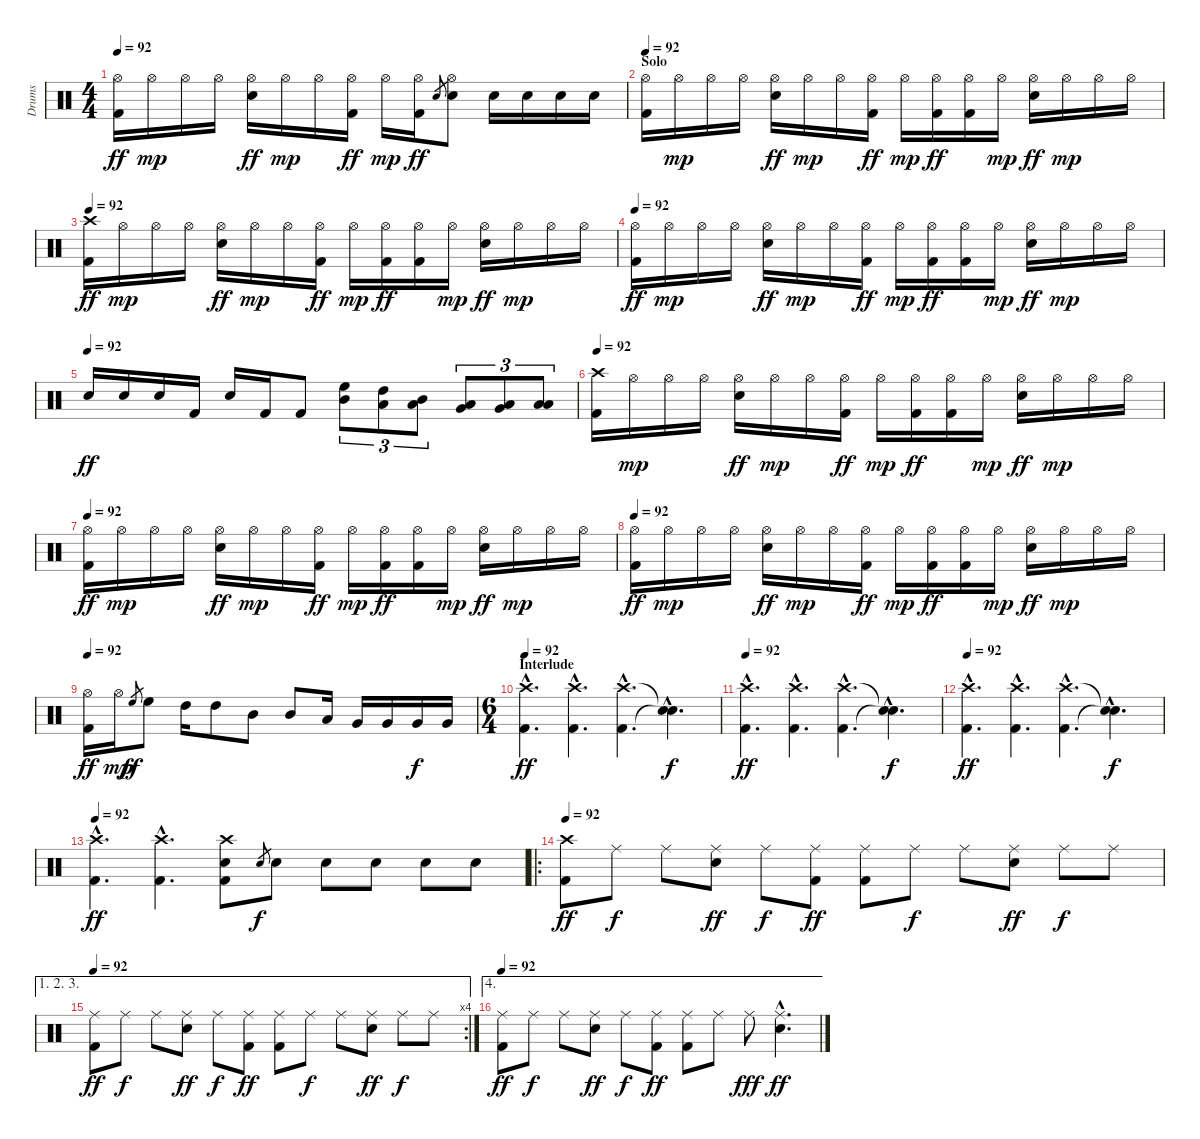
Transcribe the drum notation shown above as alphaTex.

\track ("Drums" "Drums") {instrument percussion}
\staff {score}
\articulation defaults
\ts (4 4)
\tempo 92
\clef neutral
\ks c
("Hi-Hat (open)" "Kick (hit) 2").16{dy ff} "Hi-Hat (open)".16{dy mp} "Hi-Hat (open)".16 "Hi-Hat (open)".16 ("Hi-Hat (open)" "Electric Snare (hit)").16{dy ff} "Hi-Hat (open)".16{dy mp} "Hi-Hat (open)".16 ("Hi-Hat (open)" "Kick (hit) 2").16{dy ff} "Hi-Hat (open)".16{dy mp} ("Hi-Hat (open)" "Kick (hit) 2").16{dy ff} "Electric Snare (hit)".8{gr} ("Hi-Hat (open)" "Electric Snare (hit)").8 "Electric Snare (hit)".16 "Electric Snare (hit)".16 "Electric Snare (hit)".16 "Electric Snare (hit)".16 |
\section ("" "Solo")
\tempo 92
("Hi-Hat (open)" "Kick (hit) 2").16 "Hi-Hat (open)".16{dy mp} "Hi-Hat (open)".16 "Hi-Hat (open)".16 ("Hi-Hat (open)" "Electric Snare (hit)").16{dy ff} "Hi-Hat (open)".16{dy mp} "Hi-Hat (open)".16 ("Hi-Hat (open)" "Kick (hit) 2").16{dy ff} "Hi-Hat (open)".16{dy mp} ("Hi-Hat (open)" "Kick (hit) 2").16{dy ff} ("Hi-Hat (open)" "Kick (hit) 2").16 "Hi-Hat (open)".16{dy mp} ("Hi-Hat (open)" "Electric Snare (hit)").16{dy ff} "Hi-Hat (open)".16{dy mp} "Hi-Hat (open)".16 "Hi-Hat (open)".16 |
\tempo 92
("Crash high (hit)" "Kick (hit) 2").16{dy ff} "Hi-Hat (open)".16{dy mp} "Hi-Hat (open)".16 "Hi-Hat (open)".16 ("Hi-Hat (open)" "Electric Snare (hit)").16{dy ff} "Hi-Hat (open)".16{dy mp} "Hi-Hat (open)".16 ("Hi-Hat (open)" "Kick (hit) 2").16{dy ff} "Hi-Hat (open)".16{dy mp} ("Hi-Hat (open)" "Kick (hit) 2").16{dy ff} ("Hi-Hat (open)" "Kick (hit) 2").16 "Hi-Hat (open)".16{dy mp} ("Hi-Hat (open)" "Electric Snare (hit)").16{dy ff} "Hi-Hat (open)".16{dy mp} "Hi-Hat (open)".16 "Hi-Hat (open)".16 |
\tempo 92
("Hi-Hat (open)" "Kick (hit) 2").16{dy ff} "Hi-Hat (open)".16{dy mp} "Hi-Hat (open)".16 "Hi-Hat (open)".16 ("Hi-Hat (open)" "Electric Snare (hit)").16{dy ff} "Hi-Hat (open)".16{dy mp} "Hi-Hat (open)".16 ("Hi-Hat (open)" "Kick (hit) 2").16{dy ff} "Hi-Hat (open)".16{dy mp} ("Hi-Hat (open)" "Kick (hit) 2").16{dy ff} ("Hi-Hat (open)" "Kick (hit) 2").16 "Hi-Hat (open)".16{dy mp} ("Hi-Hat (open)" "Electric Snare (hit)").16{dy ff} "Hi-Hat (open)".16{dy mp} "Hi-Hat (open)".16 "Hi-Hat (open)".16 |
\tempo (92)
"Electric Snare (hit)".16{dy ff} "Electric Snare (hit)".16 "Electric Snare (hit)".16 "Kick (hit) 2".16 "Electric Snare (hit)".16 "Kick (hit) 2".16 "Kick (hit) 2".8 ("High Floor Tom (hit)" "Mid Tom (hit)").8{tu (3 2)} ("High Tom (hit)" "Low Tom (hit)").8{tu (3 2)} ("Mid Tom (hit)" "Low Tom (hit)").8{tu (3 2)} ("Low Tom (hit)" "Very Low Tom (hit)").8{tu (3 2)} ("Very Low Tom (hit)" "Low Floor Tom (hit)").8{tu (3 2)} ("Low Floor Tom (hit)" "Low Floor Tom (hit)").8{tu (3 2)} |
\tempo 92
("Crash high (hit)" "Kick (hit) 2").16 "Hi-Hat (open)".16{dy mp} "Hi-Hat (open)".16 "Hi-Hat (open)".16 ("Hi-Hat (open)" "Electric Snare (hit)").16{dy ff} "Hi-Hat (open)".16{dy mp} "Hi-Hat (open)".16 ("Hi-Hat (open)" "Kick (hit) 2").16{dy ff} "Hi-Hat (open)".16{dy mp} ("Hi-Hat (open)" "Kick (hit) 2").16{dy ff} ("Hi-Hat (open)" "Kick (hit) 2").16 "Hi-Hat (open)".16{dy mp} ("Hi-Hat (open)" "Electric Snare (hit)").16{dy ff} "Hi-Hat (open)".16{dy mp} "Hi-Hat (open)".16 "Hi-Hat (open)".16 |
\tempo 92
("Hi-Hat (open)" "Kick (hit) 2").16{dy ff} "Hi-Hat (open)".16{dy mp} "Hi-Hat (open)".16 "Hi-Hat (open)".16 ("Hi-Hat (open)" "Electric Snare (hit)").16{dy ff} "Hi-Hat (open)".16{dy mp} "Hi-Hat (open)".16 ("Hi-Hat (open)" "Kick (hit) 2").16{dy ff} "Hi-Hat (open)".16{dy mp} ("Hi-Hat (open)" "Kick (hit) 2").16{dy ff} ("Hi-Hat (open)" "Kick (hit) 2").16 "Hi-Hat (open)".16{dy mp} ("Hi-Hat (open)" "Electric Snare (hit)").16{dy ff} "Hi-Hat (open)".16{dy mp} "Hi-Hat (open)".16 "Hi-Hat (open)".16 |
\tempo 92
("Hi-Hat (open)" "Kick (hit) 2").16{dy ff} "Hi-Hat (open)".16{dy mp} "Hi-Hat (open)".16 "Hi-Hat (open)".16 ("Hi-Hat (open)" "Electric Snare (hit)").16{dy ff} "Hi-Hat (open)".16{dy mp} "Hi-Hat (open)".16 ("Hi-Hat (open)" "Kick (hit) 2").16{dy ff} "Hi-Hat (open)".16{dy mp} ("Hi-Hat (open)" "Kick (hit) 2").16{dy ff} ("Hi-Hat (open)" "Kick (hit) 2").16 "Hi-Hat (open)".16{dy mp} ("Hi-Hat (open)" "Electric Snare (hit)").16{dy ff} "Hi-Hat (open)".16{dy mp} "Hi-Hat (open)".16 "Hi-Hat (open)".16 |
\tempo 92
("Hi-Hat (open)" "Kick (hit) 2").16{dy ff} "Hi-Hat (open)".16{dy mp} "High Floor Tom (hit)".8{gr dy ff} "High Floor Tom (hit)".8 "High Tom (hit)".16 "High Tom (hit)".8 "Mid Tom (hit)".8 "Mid Tom (hit)".8 "Low Tom (hit)".16 "Very Low Tom (hit)".16 "Very Low Tom (hit)".16 "Very Low Tom (hit)".16{dy f} "Very Low Tom (hit)".16 |
\ts (6 4)
\section ("" "Interlude")
\tempo 92
("Crash high (hit)"{hac} "Kick (hit) 2"{hac}).4{d dy ff} ("Crash high (hit)"{hac} "Kick (hit) 2"{hac}).4{d} ("Crash high (hit)"{hac} "Kick (hit) 2"{hac}).4{d} ("Snare (hit)"{hac t} "Snare (hit)"{hac t}).4{d dy f} |
\tempo 92
("Crash high (hit)"{hac} "Kick (hit) 2"{hac}).4{d dy ff} ("Crash high (hit)"{hac} "Kick (hit) 2"{hac}).4{d} ("Crash high (hit)"{hac} "Kick (hit) 2"{hac}).4{d} ("Snare (hit)"{hac t} "Snare (hit)"{hac t}).4{d dy f} |
\tempo 92
("Crash high (hit)"{hac} "Kick (hit) 2"{hac}).4{d dy ff} ("Crash high (hit)"{hac} "Kick (hit) 2"{hac}).4{d} ("Crash high (hit)"{hac} "Kick (hit) 2"{hac}).4{d} ("Snare (hit)"{hac t} "Snare (hit)"{hac t}).4{d dy f} |
\tempo 92
("Crash high (hit)"{hac} "Kick (hit) 2"{hac}).4{d dy ff} ("Crash high (hit)"{hac} "Kick (hit) 2"{hac}).4{d} ("Crash high (hit)" "Electric Snare (hit)" "Kick (hit) 2").8 "Electric Snare (hit)".8{gr dy f} "Electric Snare (hit)".8 "Electric Snare (hit)".8 "Electric Snare (hit)".8 "Electric Snare (hit)".8 "Electric Snare (hit)".8 |
\ro
\tempo 92
("Crash high (hit)" "Kick (hit) 2").8{dy ff} "Ride (middle)".8{dy f} "Ride (middle)".8 ("Ride (middle)" "Electric Snare (hit)").8{dy ff} "Ride (middle)".8{dy f} ("Ride (middle)" "Kick (hit) 2").8{dy ff} ("Ride (middle)" "Kick (hit) 2").8 "Ride (middle)".8{dy f} "Ride (middle)".8 ("Ride (middle)" "Electric Snare (hit)").8{dy ff} "Ride (middle)".8{dy f} "Ride (middle)".8 |
\ae (1 2 3)
\rc 4
\tempo 92
("Ride (middle)" "Kick (hit) 2").8{dy ff} "Ride (middle)".8{dy f} "Ride (middle)".8 ("Ride (middle)" "Electric Snare (hit)").8{dy ff} "Ride (middle)".8{dy f} ("Ride (middle)" "Kick (hit) 2").8{dy ff} ("Ride (middle)" "Kick (hit) 2").8 "Ride (middle)".8{dy f} "Ride (middle)".8 ("Ride (middle)" "Electric Snare (hit)").8{dy ff} "Ride (middle)".8{dy f} "Ride (middle)".8 |
\ae 4
\tempo 92
("Ride (middle)" "Kick (hit) 2").8{dy ff} "Ride (middle)".8{dy f} "Ride (middle)".8 ("Ride (middle)" "Electric Snare (hit)").8{dy ff} "Ride (middle)".8{dy f} ("Ride (middle)" "Kick (hit) 2").8{dy ff} ("Ride (middle)" "Kick (hit) 2").8 "Ride (middle)".8 "Ride (middle)".8{dy fff} ("Ride (middle)"{hac} "Electric Snare (hit)"{hac}).4{d dy ff}
